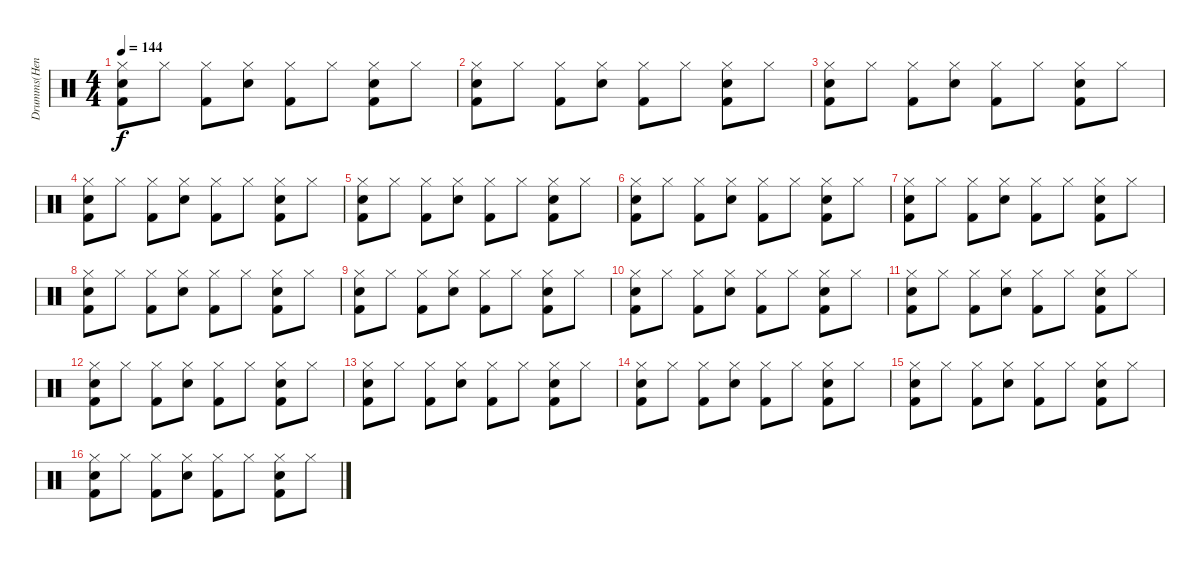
\track ("Drumms(Henrik)" "Drumms(Hen") {instrument percussion}
\staff {score}
\articulation defaults
\ts (4 4)
\tempo 144
\clef neutral
\ks c
("Hi-Hat (closed)" "Kick (hit) 2" "Electric Snare (hit)").8{dy f} "Hi-Hat (closed)".8 ("Hi-Hat (closed)" "Kick (hit) 2").8 ("Hi-Hat (closed)" "Electric Snare (hit)").8 ("Hi-Hat (closed)" "Kick (hit) 2").8 "Hi-Hat (closed)".8 ("Hi-Hat (closed)" "Kick (hit) 2" "Electric Snare (hit)").8 "Hi-Hat (closed)".8 |
("Hi-Hat (closed)" "Kick (hit) 2" "Electric Snare (hit)").8 "Hi-Hat (closed)".8 ("Hi-Hat (closed)" "Kick (hit) 2").8 ("Hi-Hat (closed)" "Electric Snare (hit)").8 ("Hi-Hat (closed)" "Kick (hit) 2").8 "Hi-Hat (closed)".8 ("Hi-Hat (closed)" "Kick (hit) 2" "Electric Snare (hit)").8 "Hi-Hat (closed)".8 |
("Hi-Hat (closed)" "Kick (hit) 2" "Electric Snare (hit)").8 "Hi-Hat (closed)".8 ("Hi-Hat (closed)" "Kick (hit) 2").8 ("Hi-Hat (closed)" "Electric Snare (hit)").8 ("Hi-Hat (closed)" "Kick (hit) 2").8 "Hi-Hat (closed)".8 ("Hi-Hat (closed)" "Kick (hit) 2" "Electric Snare (hit)").8 "Hi-Hat (closed)".8 |
("Hi-Hat (closed)" "Kick (hit) 2" "Electric Snare (hit)").8 "Hi-Hat (closed)".8 ("Hi-Hat (closed)" "Kick (hit) 2").8 ("Hi-Hat (closed)" "Electric Snare (hit)").8 ("Hi-Hat (closed)" "Kick (hit) 2").8 "Hi-Hat (closed)".8 ("Hi-Hat (closed)" "Kick (hit) 2" "Electric Snare (hit)").8 "Hi-Hat (closed)".8 |
("Hi-Hat (closed)" "Kick (hit) 2" "Electric Snare (hit)").8 "Hi-Hat (closed)".8 ("Hi-Hat (closed)" "Kick (hit) 2").8 ("Hi-Hat (closed)" "Electric Snare (hit)").8 ("Hi-Hat (closed)" "Kick (hit) 2").8 "Hi-Hat (closed)".8 ("Hi-Hat (closed)" "Kick (hit) 2" "Electric Snare (hit)").8 "Hi-Hat (closed)".8 |
("Hi-Hat (closed)" "Kick (hit) 2" "Electric Snare (hit)").8 "Hi-Hat (closed)".8 ("Hi-Hat (closed)" "Kick (hit) 2").8 ("Hi-Hat (closed)" "Electric Snare (hit)").8 ("Hi-Hat (closed)" "Kick (hit) 2").8 "Hi-Hat (closed)".8 ("Hi-Hat (closed)" "Kick (hit) 2" "Electric Snare (hit)").8 "Hi-Hat (closed)".8 |
("Hi-Hat (closed)" "Kick (hit) 2" "Electric Snare (hit)").8 "Hi-Hat (closed)".8 ("Hi-Hat (closed)" "Kick (hit) 2").8 ("Hi-Hat (closed)" "Electric Snare (hit)").8 ("Hi-Hat (closed)" "Kick (hit) 2").8 "Hi-Hat (closed)".8 ("Hi-Hat (closed)" "Kick (hit) 2" "Electric Snare (hit)").8 "Hi-Hat (closed)".8 |
("Hi-Hat (closed)" "Kick (hit) 2" "Electric Snare (hit)").8 "Hi-Hat (closed)".8 ("Hi-Hat (closed)" "Kick (hit) 2").8 ("Hi-Hat (closed)" "Electric Snare (hit)").8 ("Hi-Hat (closed)" "Kick (hit) 2").8 "Hi-Hat (closed)".8 ("Hi-Hat (closed)" "Kick (hit) 2" "Electric Snare (hit)").8 "Hi-Hat (closed)".8 |
("Hi-Hat (closed)" "Kick (hit) 2" "Electric Snare (hit)").8 "Hi-Hat (closed)".8 ("Hi-Hat (closed)" "Kick (hit) 2").8 ("Hi-Hat (closed)" "Electric Snare (hit)").8 ("Hi-Hat (closed)" "Kick (hit) 2").8 "Hi-Hat (closed)".8 ("Hi-Hat (closed)" "Kick (hit) 2" "Electric Snare (hit)").8 "Hi-Hat (closed)".8 |
("Hi-Hat (closed)" "Kick (hit) 2" "Electric Snare (hit)").8 "Hi-Hat (closed)".8 ("Hi-Hat (closed)" "Kick (hit) 2").8 ("Hi-Hat (closed)" "Electric Snare (hit)").8 ("Hi-Hat (closed)" "Kick (hit) 2").8 "Hi-Hat (closed)".8 ("Hi-Hat (closed)" "Kick (hit) 2" "Electric Snare (hit)").8 "Hi-Hat (closed)".8 |
("Hi-Hat (closed)" "Kick (hit) 2" "Electric Snare (hit)").8 "Hi-Hat (closed)".8 ("Hi-Hat (closed)" "Kick (hit) 2").8 ("Hi-Hat (closed)" "Electric Snare (hit)").8 ("Hi-Hat (closed)" "Kick (hit) 2").8 "Hi-Hat (closed)".8 ("Hi-Hat (closed)" "Kick (hit) 2" "Electric Snare (hit)").8 "Hi-Hat (closed)".8 |
("Hi-Hat (closed)" "Kick (hit) 2" "Electric Snare (hit)").8 "Hi-Hat (closed)".8 ("Hi-Hat (closed)" "Kick (hit) 2").8 ("Hi-Hat (closed)" "Electric Snare (hit)").8 ("Hi-Hat (closed)" "Kick (hit) 2").8 "Hi-Hat (closed)".8 ("Hi-Hat (closed)" "Kick (hit) 2" "Electric Snare (hit)").8 "Hi-Hat (closed)".8 |
("Hi-Hat (closed)" "Kick (hit) 2" "Electric Snare (hit)").8 "Hi-Hat (closed)".8 ("Hi-Hat (closed)" "Kick (hit) 2").8 ("Hi-Hat (closed)" "Electric Snare (hit)").8 ("Hi-Hat (closed)" "Kick (hit) 2").8 "Hi-Hat (closed)".8 ("Hi-Hat (closed)" "Kick (hit) 2" "Electric Snare (hit)").8 "Hi-Hat (closed)".8 |
("Hi-Hat (closed)" "Kick (hit) 2" "Electric Snare (hit)").8 "Hi-Hat (closed)".8 ("Hi-Hat (closed)" "Kick (hit) 2").8 ("Hi-Hat (closed)" "Electric Snare (hit)").8 ("Hi-Hat (closed)" "Kick (hit) 2").8 "Hi-Hat (closed)".8 ("Hi-Hat (closed)" "Kick (hit) 2" "Electric Snare (hit)").8 "Hi-Hat (closed)".8 |
("Hi-Hat (closed)" "Kick (hit) 2" "Electric Snare (hit)").8 "Hi-Hat (closed)".8 ("Hi-Hat (closed)" "Kick (hit) 2").8 ("Hi-Hat (closed)" "Electric Snare (hit)").8 ("Hi-Hat (closed)" "Kick (hit) 2").8 "Hi-Hat (closed)".8 ("Hi-Hat (closed)" "Kick (hit) 2" "Electric Snare (hit)").8 "Hi-Hat (closed)".8 |
("Hi-Hat (closed)" "Kick (hit) 2" "Electric Snare (hit)").8 "Hi-Hat (closed)".8 ("Hi-Hat (closed)" "Kick (hit) 2").8 ("Hi-Hat (closed)" "Electric Snare (hit)").8 ("Hi-Hat (closed)" "Kick (hit) 2").8 "Hi-Hat (closed)".8 ("Hi-Hat (closed)" "Kick (hit) 2" "Electric Snare (hit)").8 "Hi-Hat (closed)".8
